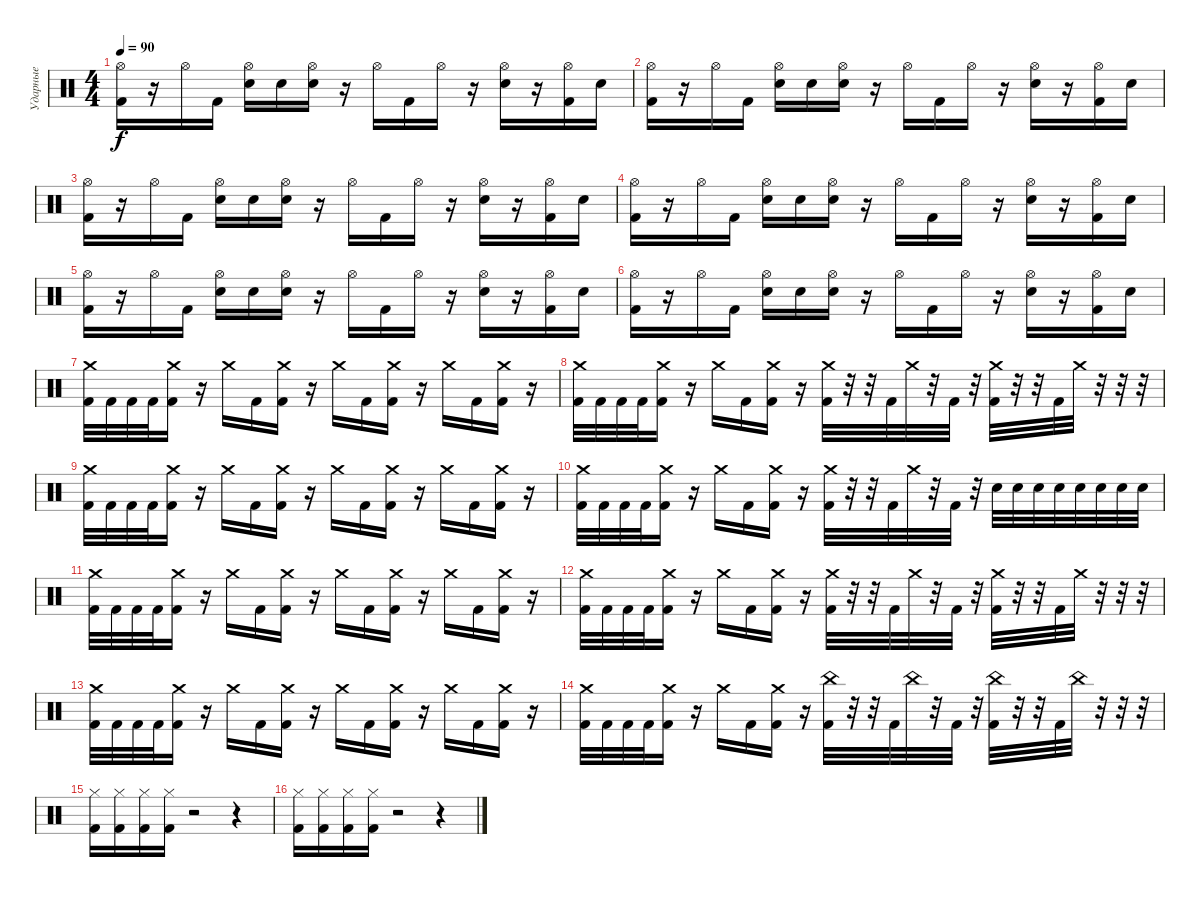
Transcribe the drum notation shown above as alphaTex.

\track ("Ударные" "Ударные") {instrument percussion}
\staff {score}
\articulation defaults
\ts (4 4)
\tempo 90
\clef neutral
\ks c
("Hi-Hat (open)" "Kick (hit) 2").16{dy f} r.16 "Hi-Hat (open)".16 "Kick (hit) 2".16 ("Hi-Hat (open)" "Electric Snare (hit)").16 "Electric Snare (hit)".16 ("Hi-Hat (open)" "Electric Snare (hit)").16 r.16 "Hi-Hat (open)".16 "Kick (hit) 2".16 "Hi-Hat (open)".16 r.16 ("Hi-Hat (open)" "Electric Snare (hit)").16 r.16 ("Hi-Hat (open)" "Kick (hit) 2").16 "Electric Snare (hit)".16 |
("Hi-Hat (open)" "Kick (hit) 2").16 r.16 "Hi-Hat (open)".16 "Kick (hit) 2".16 ("Hi-Hat (open)" "Electric Snare (hit)").16 "Electric Snare (hit)".16 ("Hi-Hat (open)" "Electric Snare (hit)").16 r.16 "Hi-Hat (open)".16 "Kick (hit) 2".16 "Hi-Hat (open)".16 r.16 ("Hi-Hat (open)" "Electric Snare (hit)").16 r.16 ("Hi-Hat (open)" "Kick (hit) 2").16 "Electric Snare (hit)".16 |
("Hi-Hat (open)" "Kick (hit) 2").16 r.16 "Hi-Hat (open)".16 "Kick (hit) 2".16 ("Hi-Hat (open)" "Electric Snare (hit)").16 "Electric Snare (hit)".16 ("Hi-Hat (open)" "Electric Snare (hit)").16 r.16 "Hi-Hat (open)".16 "Kick (hit) 2".16 "Hi-Hat (open)".16 r.16 ("Hi-Hat (open)" "Electric Snare (hit)").16 r.16 ("Hi-Hat (open)" "Kick (hit) 2").16 "Electric Snare (hit)".16 |
("Hi-Hat (open)" "Kick (hit) 2").16 r.16 "Hi-Hat (open)".16 "Kick (hit) 2".16 ("Hi-Hat (open)" "Electric Snare (hit)").16 "Electric Snare (hit)".16 ("Hi-Hat (open)" "Electric Snare (hit)").16 r.16 "Hi-Hat (open)".16 "Kick (hit) 2".16 "Hi-Hat (open)".16 r.16 ("Hi-Hat (open)" "Electric Snare (hit)").16 r.16 ("Hi-Hat (open)" "Kick (hit) 2").16 "Electric Snare (hit)".16 |
("Hi-Hat (open)" "Kick (hit) 2").16 r.16 "Hi-Hat (open)".16 "Kick (hit) 2".16 ("Hi-Hat (open)" "Electric Snare (hit)").16 "Electric Snare (hit)".16 ("Hi-Hat (open)" "Electric Snare (hit)").16 r.16 "Hi-Hat (open)".16 "Kick (hit) 2".16 "Hi-Hat (open)".16 r.16 ("Hi-Hat (open)" "Electric Snare (hit)").16 r.16 ("Hi-Hat (open)" "Kick (hit) 2").16 "Electric Snare (hit)".16 |
("Hi-Hat (open)" "Kick (hit) 2").16 r.16 "Hi-Hat (open)".16 "Kick (hit) 2".16 ("Hi-Hat (open)" "Electric Snare (hit)").16 "Electric Snare (hit)".16 ("Hi-Hat (open)" "Electric Snare (hit)").16 r.16 "Hi-Hat (open)".16 "Kick (hit) 2".16 "Hi-Hat (open)".16 r.16 ("Hi-Hat (open)" "Electric Snare (hit)").16 r.16 ("Hi-Hat (open)" "Kick (hit) 2").16 "Electric Snare (hit)".16 |
("Crash medium (hit)" "Kick (hit) 2").32 "Kick (hit) 2".32 "Kick (hit) 2".32 "Kick (hit) 2".32 ("Crash medium (hit)" "Kick (hit) 2").16 r.16 "Crash medium (hit)".16 "Kick (hit) 2".16 ("Crash medium (hit)" "Kick (hit) 2").16 r.16 "Crash medium (hit)".16 "Kick (hit) 2".16 ("Crash medium (hit)" "Kick (hit) 2").16 r.16 "Crash medium (hit)".16 "Kick (hit) 2".16 ("Crash medium (hit)" "Kick (hit) 2").16 r.16 |
("Crash medium (hit)" "Kick (hit) 2").32 "Kick (hit) 2".32 "Kick (hit) 2".32 "Kick (hit) 2".32 ("Crash medium (hit)" "Kick (hit) 2").16 r.16 "Crash medium (hit)".16 "Kick (hit) 2".16 ("Crash medium (hit)" "Kick (hit) 2").16 r.16 ("Crash medium (hit)" "Kick (hit) 2").32 r.32 r.32 "Kick (hit) 2".32 "Crash medium (hit)".32 r.32 "Kick (hit) 2".32 r.32 ("Crash medium (hit)" "Kick (hit) 2").32 r.32 r.32 "Kick (hit) 2".32 "Crash medium (hit)".32 r.32 r.32 r.32 |
("Crash medium (hit)" "Kick (hit) 2").32 "Kick (hit) 2".32 "Kick (hit) 2".32 "Kick (hit) 2".32 ("Crash medium (hit)" "Kick (hit) 2").16 r.16 "Crash medium (hit)".16 "Kick (hit) 2".16 ("Crash medium (hit)" "Kick (hit) 2").16 r.16 "Crash medium (hit)".16 "Kick (hit) 2".16 ("Crash medium (hit)" "Kick (hit) 2").16 r.16 "Crash medium (hit)".16 "Kick (hit) 2".16 ("Crash medium (hit)" "Kick (hit) 2").16 r.16 |
("Crash medium (hit)" "Kick (hit) 2").32 "Kick (hit) 2".32 "Kick (hit) 2".32 "Kick (hit) 2".32 ("Crash medium (hit)" "Kick (hit) 2").16 r.16 "Crash medium (hit)".16 "Kick (hit) 2".16 ("Crash medium (hit)" "Kick (hit) 2").16 r.16 ("Crash medium (hit)" "Kick (hit) 2").32 r.32 r.32 "Kick (hit) 2".32 "Crash medium (hit)".32 r.32 "Kick (hit) 2".32 r.32 "Electric Snare (hit)".32 "Electric Snare (hit)".32 "Electric Snare (hit)".32 "Electric Snare (hit)".32 "Electric Snare (hit)".32 "Electric Snare (hit)".32 "Electric Snare (hit)".32 "Electric Snare (hit)".32 |
("Crash medium (hit)" "Kick (hit) 2").32 "Kick (hit) 2".32 "Kick (hit) 2".32 "Kick (hit) 2".32 ("Crash medium (hit)" "Kick (hit) 2").16 r.16 "Crash medium (hit)".16 "Kick (hit) 2".16 ("Crash medium (hit)" "Kick (hit) 2").16 r.16 "Crash medium (hit)".16 "Kick (hit) 2".16 ("Crash medium (hit)" "Kick (hit) 2").16 r.16 "Crash medium (hit)".16 "Kick (hit) 2".16 ("Crash medium (hit)" "Kick (hit) 2").16 r.16 |
("Crash medium (hit)" "Kick (hit) 2").32 "Kick (hit) 2".32 "Kick (hit) 2".32 "Kick (hit) 2".32 ("Crash medium (hit)" "Kick (hit) 2").16 r.16 "Crash medium (hit)".16 "Kick (hit) 2".16 ("Crash medium (hit)" "Kick (hit) 2").16 r.16 ("Crash medium (hit)" "Kick (hit) 2").32 r.32 r.32 "Kick (hit) 2".32 "Crash medium (hit)".32 r.32 "Kick (hit) 2".32 r.32 ("Crash medium (hit)" "Kick (hit) 2").32 r.32 r.32 "Kick (hit) 2".32 "Crash medium (hit)".32 r.32 r.32 r.32 |
("Crash medium (hit)" "Kick (hit) 2").32 "Kick (hit) 2".32 "Kick (hit) 2".32 "Kick (hit) 2".32 ("Crash medium (hit)" "Kick (hit) 2").16 r.16 "Crash medium (hit)".16 "Kick (hit) 2".16 ("Crash medium (hit)" "Kick (hit) 2").16 r.16 "Crash medium (hit)".16 "Kick (hit) 2".16 ("Crash medium (hit)" "Kick (hit) 2").16 r.16 "Crash medium (hit)".16 "Kick (hit) 2".16 ("Crash medium (hit)" "Kick (hit) 2").16 r.16 |
("Crash medium (hit)" "Kick (hit) 2").32 "Kick (hit) 2".32 "Kick (hit) 2".32 "Kick (hit) 2".32 ("Crash medium (hit)" "Kick (hit) 2").16 r.16 "Crash medium (hit)".16 "Kick (hit) 2".16 ("Crash medium (hit)" "Kick (hit) 2").16 r.16 ("China (hit)" "Kick (hit) 2").32 r.32 r.32 "Kick (hit) 2".32 "China (hit)".32 r.32 "Kick (hit) 2".32 r.32 ("China (hit)" "Kick (hit) 2").32 r.32 r.32 "Kick (hit) 2".32 "China (hit)".32 r.32 r.32 r.32 |
("Hi-Hat (closed)" "Kick (hit) 2").16 ("Hi-Hat (closed)" "Kick (hit) 2").16 ("Hi-Hat (closed)" "Kick (hit) 2").16 ("Hi-Hat (closed)" "Kick (hit) 2").16 r.2 r.4 |
("Hi-Hat (closed)" "Kick (hit) 2").16 ("Hi-Hat (closed)" "Kick (hit) 2").16 ("Hi-Hat (closed)" "Kick (hit) 2").16 ("Hi-Hat (closed)" "Kick (hit) 2").16 r.2 r.4
